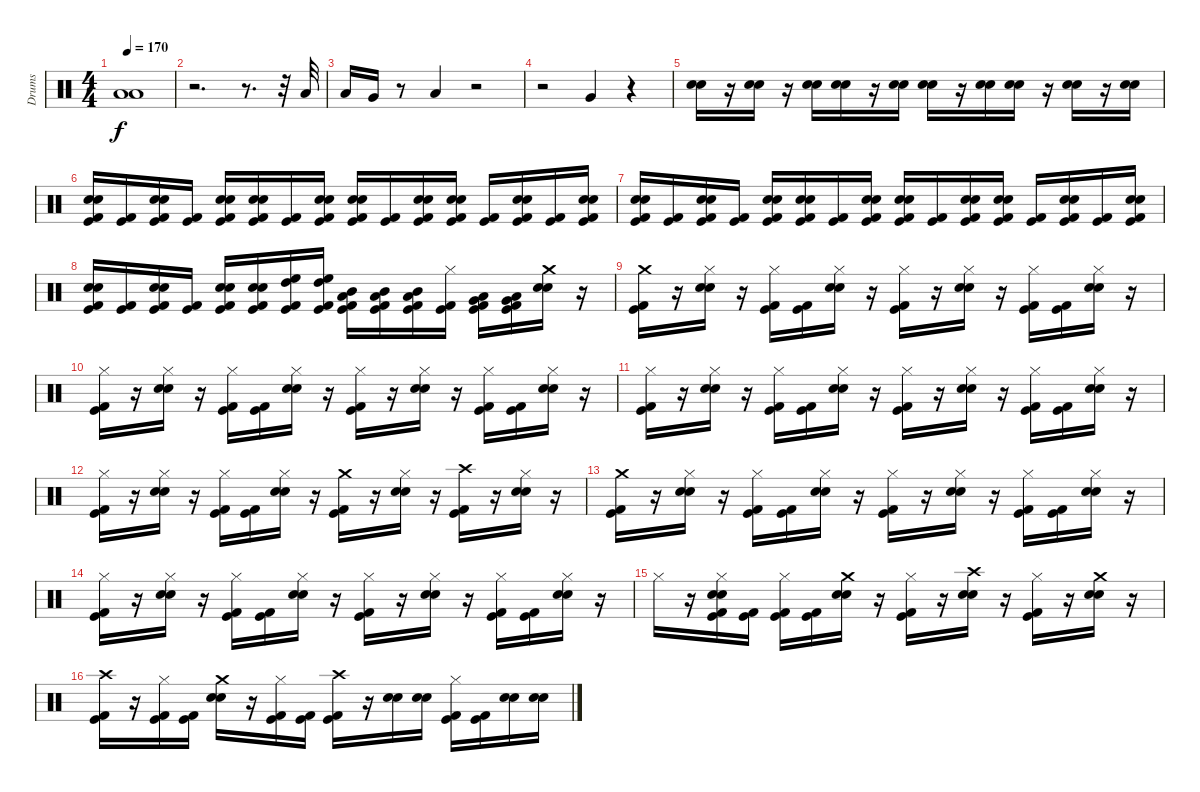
\track ("Drums" "Drums") {instrument percussion}
\staff {score}
\articulation defaults
\ts (4 4)
\tempo 170
\clef neutral
\ks c
("Low Tom (hit)" "Low Tom (hit)").1{dy f} |
r.2{d} r.8{d} r.32 "Low Tom (hit)".32 |
"Low Tom (hit)".16 "Very Low Tom (hit)".16 r.8 "Low Tom (hit)".4 r.2 |
r.2 "Very Low Tom (hit)".4 r.4 |
("Electric Snare (hit)" "Snare (hit) 2").16{volume 1} r.16 ("Electric Snare (hit)" "Snare (hit) 2").16{volume 2} r.16 ("Electric Snare (hit)" "Snare (hit) 2").16{volume 3} ("Electric Snare (hit)" "Snare (hit) 2").16{volume 4} r.16 ("Electric Snare (hit)" "Snare (hit) 2").16{volume 5} ("Electric Snare (hit)" "Snare (hit) 2").16{volume 5} r.16 ("Electric Snare (hit)" "Snare (hit) 2").16{volume 6} ("Electric Snare (hit)" "Snare (hit) 2").16{volume 7} r.16 ("Electric Snare (hit)" "Snare (hit) 2").16{volume 8} r.16 ("Electric Snare (hit)" "Snare (hit) 2").16{volume 9} |
("Kick (hit) 2" "Kick (hit)" "Electric Snare (hit)" "Snare (hit) 2").16{volume 10} ("Kick (hit) 2" "Kick (hit)").16{volume 10} ("Kick (hit) 2" "Kick (hit)" "Electric Snare (hit)" "Snare (hit) 2").16{volume 11} ("Kick (hit) 2" "Kick (hit)").16{volume 12} ("Kick (hit) 2" "Kick (hit)" "Electric Snare (hit)" "Snare (hit) 2").16{volume 12} ("Kick (hit) 2" "Kick (hit)" "Electric Snare (hit)" "Snare (hit) 2").16{volume 13} ("Kick (hit) 2" "Kick (hit)").16{volume 13} ("Kick (hit) 2" "Kick (hit)" "Electric Snare (hit)" "Snare (hit) 2").16{volume 14} ("Kick (hit) 2" "Kick (hit)" "Electric Snare (hit)" "Snare (hit) 2").16{volume 14} ("Kick (hit) 2" "Kick (hit)").16{volume 15} ("Kick (hit) 2" "Kick (hit)" "Electric Snare (hit)" "Snare (hit) 2").16{volume 16} ("Kick (hit) 2" "Kick (hit)" "Electric Snare (hit)" "Snare (hit) 2").16{volume 16} ("Kick (hit) 2" "Kick (hit)").16 ("Kick (hit) 2" "Kick (hit)" "Electric Snare (hit)" "Snare (hit) 2").16 ("Kick (hit) 2" "Kick (hit)").16 ("Kick (hit) 2" "Kick (hit)" "Electric Snare (hit)" "Snare (hit) 2").16 |
("Kick (hit) 2" "Kick (hit)" "Electric Snare (hit)" "Snare (hit) 2").16 ("Kick (hit) 2" "Kick (hit)").16 ("Kick (hit) 2" "Kick (hit)" "Electric Snare (hit)" "Snare (hit) 2").16 ("Kick (hit) 2" "Kick (hit)").16 ("Kick (hit) 2" "Kick (hit)" "Electric Snare (hit)" "Snare (hit) 2").16 ("Kick (hit) 2" "Kick (hit)" "Electric Snare (hit)" "Snare (hit) 2").16 ("Kick (hit) 2" "Kick (hit)").16 ("Kick (hit) 2" "Kick (hit)" "Electric Snare (hit)" "Snare (hit) 2").16 ("Kick (hit) 2" "Kick (hit)" "Electric Snare (hit)" "Snare (hit) 2").16 ("Kick (hit) 2" "Kick (hit)").16 ("Kick (hit) 2" "Kick (hit)" "Electric Snare (hit)" "Snare (hit) 2").16 ("Kick (hit) 2" "Kick (hit)" "Electric Snare (hit)" "Snare (hit) 2").16 ("Kick (hit) 2" "Kick (hit)").16 ("Snare (hit) 2" "Electric Snare (hit)" "Kick (hit) 2" "Kick (hit)").16 ("Kick (hit) 2" "Kick (hit)").16 ("Kick (hit) 2" "Kick (hit)" "Electric Snare (hit)" "Snare (hit) 2").16 |
("Kick (hit) 2" "Kick (hit)" "Electric Snare (hit)" "Snare (hit) 2").16 ("Kick (hit) 2" "Kick (hit)").16 ("Kick (hit) 2" "Kick (hit)" "Electric Snare (hit)" "Snare (hit) 2").16 ("Kick (hit) 2" "Kick (hit)").16 ("Kick (hit) 2" "Kick (hit)" "Electric Snare (hit)" "Snare (hit) 2").16 ("Kick (hit) 2" "Kick (hit)" "Electric Snare (hit)" "Snare (hit) 2").16 ("Kick (hit) 2" "Kick (hit)" "High Tom (hit)" "High Floor Tom (hit)").16 ("Kick (hit) 2" "Kick (hit)" "High Tom (hit)" "High Floor Tom (hit)").16 ("Kick (hit) 2" "Kick (hit)" "Low Tom (hit)" "Mid Tom (hit)").16 ("Kick (hit) 2" "Kick (hit)" "Low Tom (hit)" "Mid Tom (hit)").16 ("Kick (hit) 2" "Kick (hit)" "Low Tom (hit)" "Mid Tom (hit)").16 ("Kick (hit) 2" "Kick (hit)" "Hi-Hat (closed)").16 ("Kick (hit) 2" "Kick (hit)" "Very Low Tom (hit)" "Low Tom (hit)").16 ("Kick (hit) 2" "Kick (hit)" "Very Low Tom (hit)" "Low Tom (hit)").16 ("Electric Snare (hit)" "Snare (hit) 2" "Crash medium (hit)").16 r.16 |
("Crash medium (hit)" "Kick (hit) 2" "Kick (hit)").16 r.16 ("Hi-Hat (closed)" "Electric Snare (hit)" "Snare (hit) 2").16 r.16 ("Kick (hit) 2" "Kick (hit)" "Hi-Hat (closed)").16 ("Kick (hit) 2" "Kick (hit)").16 ("Electric Snare (hit)" "Snare (hit) 2" "Hi-Hat (closed)").16 r.16 ("Kick (hit) 2" "Kick (hit)" "Hi-Hat (closed)").16 r.16 ("Electric Snare (hit)" "Snare (hit) 2" "Hi-Hat (closed)").16 r.16 ("Kick (hit) 2" "Kick (hit)" "Hi-Hat (closed)").16 ("Kick (hit) 2" "Kick (hit)").16 ("Electric Snare (hit)" "Snare (hit) 2" "Hi-Hat (closed)").16 r.16 |
("Hi-Hat (closed)" "Kick (hit) 2" "Kick (hit)").16 r.16 ("Hi-Hat (closed)" "Electric Snare (hit)" "Snare (hit) 2").16 r.16 ("Kick (hit) 2" "Kick (hit)" "Hi-Hat (closed)").16 ("Kick (hit) 2" "Kick (hit)").16 ("Electric Snare (hit)" "Snare (hit) 2" "Hi-Hat (closed)").16 r.16 ("Kick (hit) 2" "Kick (hit)" "Hi-Hat (closed)").16 r.16 ("Electric Snare (hit)" "Snare (hit) 2" "Hi-Hat (closed)").16 r.16 ("Kick (hit) 2" "Kick (hit)" "Hi-Hat (closed)").16 ("Kick (hit) 2" "Kick (hit)").16 ("Electric Snare (hit)" "Snare (hit) 2" "Hi-Hat (closed)").16 r.16 |
("Hi-Hat (closed)" "Kick (hit) 2" "Kick (hit)").16 r.16 ("Hi-Hat (closed)" "Electric Snare (hit)" "Snare (hit) 2").16 r.16 ("Kick (hit) 2" "Kick (hit)" "Hi-Hat (closed)").16 ("Kick (hit) 2" "Kick (hit)").16 ("Electric Snare (hit)" "Snare (hit) 2" "Hi-Hat (closed)").16 r.16 ("Kick (hit) 2" "Kick (hit)" "Hi-Hat (closed)").16 r.16 ("Electric Snare (hit)" "Snare (hit) 2" "Hi-Hat (closed)").16 r.16 ("Kick (hit) 2" "Kick (hit)" "Hi-Hat (closed)").16 ("Kick (hit) 2" "Kick (hit)").16 ("Electric Snare (hit)" "Snare (hit) 2" "Hi-Hat (closed)").16 r.16 |
("Hi-Hat (closed)" "Kick (hit) 2" "Kick (hit)").16 r.16 ("Hi-Hat (closed)" "Electric Snare (hit)" "Snare (hit) 2").16 r.16 ("Kick (hit) 2" "Kick (hit)" "Hi-Hat (closed)").16 ("Kick (hit) 2" "Kick (hit)").16 ("Electric Snare (hit)" "Snare (hit) 2" "Hi-Hat (closed)").16 r.16 ("Crash medium (hit)" "Kick (hit) 2" "Kick (hit)").16 r.16 ("Electric Snare (hit)" "Snare (hit) 2" "Hi-Hat (closed)").16 r.16 ("Crash high (hit)" "Kick (hit) 2" "Kick (hit)").16 r.16 ("Electric Snare (hit)" "Snare (hit) 2" "Hi-Hat (closed)").16 r.16 |
("Crash medium (hit)" "Kick (hit) 2" "Kick (hit)").16 r.16 ("Hi-Hat (closed)" "Electric Snare (hit)" "Snare (hit) 2").16 r.16 ("Kick (hit) 2" "Kick (hit)" "Hi-Hat (closed)").16 ("Kick (hit) 2" "Kick (hit)").16 ("Electric Snare (hit)" "Snare (hit) 2" "Hi-Hat (closed)").16 r.16 ("Kick (hit) 2" "Kick (hit)" "Hi-Hat (closed)").16 r.16 ("Electric Snare (hit)" "Snare (hit) 2" "Hi-Hat (closed)").16 r.16 ("Kick (hit) 2" "Kick (hit)" "Hi-Hat (closed)").16 ("Kick (hit) 2" "Kick (hit)").16 ("Electric Snare (hit)" "Snare (hit) 2" "Hi-Hat (closed)").16 r.16 |
("Hi-Hat (closed)" "Kick (hit) 2" "Kick (hit)").16 r.16 ("Hi-Hat (closed)" "Electric Snare (hit)" "Snare (hit) 2").16 r.16 ("Kick (hit) 2" "Kick (hit)" "Hi-Hat (closed)").16 ("Kick (hit) 2" "Kick (hit)").16 ("Electric Snare (hit)" "Snare (hit) 2" "Hi-Hat (closed)").16 r.16 ("Kick (hit) 2" "Kick (hit)" "Hi-Hat (closed)").16 r.16 ("Electric Snare (hit)" "Snare (hit) 2" "Hi-Hat (closed)").16 r.16 ("Kick (hit) 2" "Kick (hit)" "Hi-Hat (closed)").16 ("Kick (hit) 2" "Kick (hit)").16 ("Electric Snare (hit)" "Snare (hit) 2" "Hi-Hat (closed)").16 r.16 |
"Hi-Hat (closed)".16 r.16 ("Kick (hit) 2" "Kick (hit)" "Hi-Hat (closed)" "Electric Snare (hit)" "Snare (hit) 2").16 ("Kick (hit) 2" "Kick (hit)").16 ("Kick (hit) 2" "Kick (hit)" "Hi-Hat (closed)").16 ("Kick (hit) 2" "Kick (hit)").16 ("Crash medium (hit)" "Electric Snare (hit)" "Snare (hit) 2").16 r.16 ("Kick (hit) 2" "Kick (hit)" "Hi-Hat (closed)").16 r.16 ("Crash high (hit)" "Electric Snare (hit)" "Snare (hit) 2").16 r.16 ("Kick (hit) 2" "Kick (hit)" "Hi-Hat (closed)").16 r.16 ("Crash medium (hit)" "Electric Snare (hit)" "Snare (hit) 2").16 r.16 |
("Crash high (hit)" "Kick (hit) 2" "Kick (hit)").16 r.16 ("Kick (hit) 2" "Kick (hit)" "Hi-Hat (closed)").16 ("Kick (hit) 2" "Kick (hit)").16 ("Crash medium (hit)" "Electric Snare (hit)" "Snare (hit) 2").16 r.16 ("Kick (hit) 2" "Kick (hit)" "Hi-Hat (closed)").16 ("Kick (hit) 2" "Kick (hit)").16 ("Crash high (hit)" "Kick (hit) 2" "Kick (hit)").16 r.16 ("Electric Snare (hit)" "Snare (hit) 2").16 ("Electric Snare (hit)" "Snare (hit) 2").16 ("Hi-Hat (closed)" "Kick (hit) 2" "Kick (hit)").16 ("Kick (hit) 2" "Kick (hit)").16 ("Electric Snare (hit)" "Snare (hit) 2").16 ("Electric Snare (hit)" "Snare (hit) 2").16
